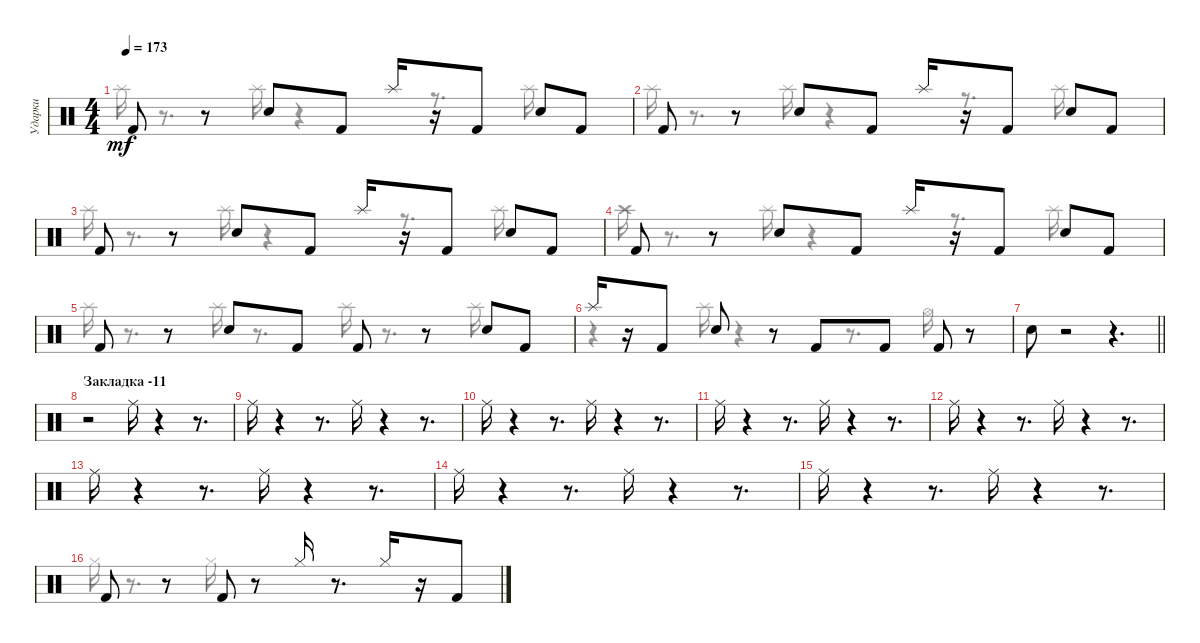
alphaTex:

\track ("Ударки" "Ударки") {instrument percussion}
\staff {score}
\articulation defaults
\voice
\ts (4 4)
\tempo 173
\clef neutral
\ks aminor "Kick (hit) 2".8{dy mf}
r.8 "Snare (hit) 2".8 "Kick (hit) 2".8 "Splash (hit)".16 r.16 "Kick (hit) 2".8 "Snare (hit) 2".8 "Kick (hit) 2".8 |
"Kick (hit) 2".8 r.8 "Snare (hit) 2".8 "Kick (hit) 2".8 "Splash (hit)".16 r.16 "Kick (hit) 2".8 "Snare (hit) 2".8 "Kick (hit) 2".8 |
"Kick (hit) 2".8 r.8 "Snare (hit) 2".8 "Kick (hit) 2".8 "Splash (hit)".16 r.16 "Kick (hit) 2".8 "Snare (hit) 2".8 "Kick (hit) 2".8 |
"Kick (hit) 2".8 r.8 "Snare (hit) 2".8 "Kick (hit) 2".8 "Splash (hit)".16 r.16 "Kick (hit) 2".8 "Snare (hit) 2".8 "Kick (hit) 2".8 |
"Kick (hit) 2".8 r.8 "Snare (hit) 2".8 "Kick (hit) 2".8 "Kick (hit) 2".8 r.8 "Snare (hit) 2".8 "Kick (hit) 2".8 |
"Splash (hit)".16 r.16 "Kick (hit) 2".8 "Snare (hit) 2".8 r.8 "Kick (hit) 2".8 "Kick (hit) 2".8 "Kick (hit) 2".8 r.8 |
\barLineRight lightlight "Snare (hit) 2".8
r.2 r.4{d} |
\section ("" "Закладка -11")
r.2 "Ride (middle)".16 r.4 r.8{d} |
"Ride (middle)".16 r.4 r.8{d} "Ride (middle)".16 r.4 r.8{d} |
"Ride (middle)".16 r.4 r.8{d} "Ride (middle)".16 r.4 r.8{d} |
"Ride (middle)".16 r.4 r.8{d} "Ride (middle)".16 r.4 r.8{d} |
"Ride (middle)".16 r.4 r.8{d} "Ride (middle)".16 r.4 r.8{d} |
"Ride (middle)".16 r.4 r.8{d} "Ride (middle)".16 r.4 r.8{d} |
"Ride (middle)".16 r.4 r.8{d} "Ride (middle)".16 r.4 r.8{d} |
"Ride (middle)".16 r.4 r.8{d} "Ride (middle)".16 r.4 r.8{d} |
"Kick (hit) 2".8 r.8 "Kick (hit) 2".8 r.8 "Hi-Hat (closed)".16 r.8{d} "Hi-Hat (closed)".16 r.16 "Kick (hit) 2".8
\voice
\clef neutral
\ottava regular
\simile none
\ks aminor "Splash (hit)".16{dy mf}
r.8{d} "Splash (hit)".16 r.4 r.8{d} "Splash (hit)".16 |
"Splash (hit)".16 r.8{d} "Splash (hit)".16 r.4 r.8{d} "Splash (hit)".16 |
"Splash (hit)".16 r.8{d} "Splash (hit)".16 r.4 r.8{d} "Splash (hit)".16 |
"Crash high (hit)".16 r.8{d} "Splash (hit)".16 r.4 r.8{d} "Splash (hit)".16 |
"Splash (hit)".16 r.8{d} "Splash (hit)".16 r.8{d} "Splash (hit)".16 r.8{d} "Splash (hit)".16 |
r.4 "Splash (hit)".16 r.4 r.8{d} "Hi-Hat (open)".16 |
\barLineRight lightlight
|
|
|
|
|
|
|
|
|
"Hi-Hat (closed)".16 r.8{d} "Hi-Hat (closed)".16
